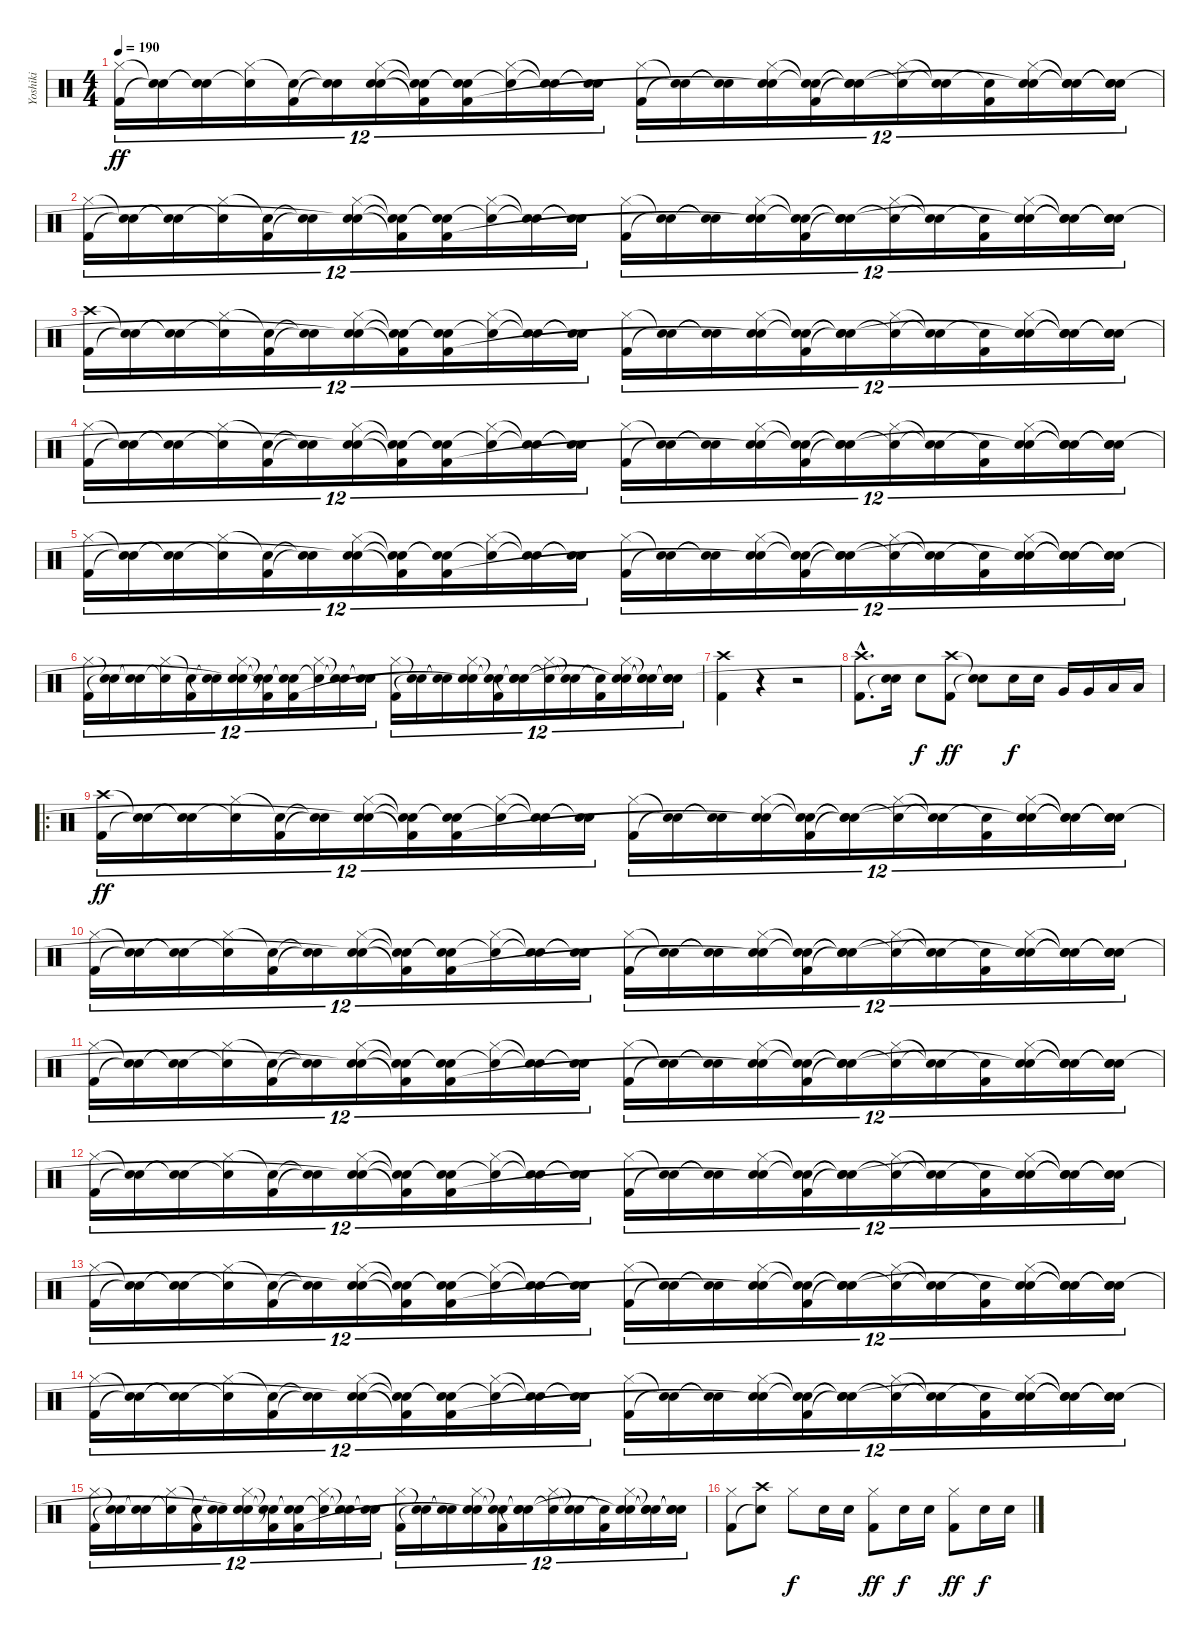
\track ("Yoshiki" "Yoshiki") {instrument percussion}
\staff {score}
\articulation defaults
\ts (4 4)
\tempo 190
\clef neutral
\ks c
("Hi-Hat (closed)" "Kick (hit) 2").16{tu (12 8) dy ff} ("Snare (hit)"{t} "Snare (hit)"{t}).16{tu (12 8)} ("Snare (hit)"{t} "Snare (hit)"{t}).16{tu (12 8)} ("Hi-Hat (closed)" "Snare (hit)"{t}).16{tu (12 8)} ("Snare (hit)"{t} "Kick (hit) 2").16{tu (12 8)} ("Snare (hit)"{t} "Snare (hit)"{t}).16{tu (12 8)} ("Hi-Hat (closed)" "Snare (hit) 2" "Snare (hit)"{t}).16{tu (12 8)} ("Snare (hit)"{t} "Snare (hit)"{t} "Kick (hit) 2"{t}).16{tu (12 8)} ("Snare (hit)"{t} "Snare (hit)"{t} "Kick (hit) 2").16{tu (12 8)} ("Hi-Hat (closed)" "Snare (hit)"{t}).16{tu (12 8)} ("Snare (hit)"{t} "Snare (hit)"{t}).16{tu (12 8)} ("Snare (hit)"{t} "Snare (hit)"{t}).16{tu (12 8)} ("Hi-Hat (closed)" "Kick (hit) 2").16{tu (12 8)} ("Snare (hit)"{t} "Snare (hit)"{t}).16{tu (12 8)} ("Snare (hit)"{t} "Snare (hit)"{t}).16{tu (12 8)} ("Hi-Hat (closed)" "Snare (hit) 2" "Snare (hit)"{t}).16{tu (12 8)} ("Snare (hit)"{t} "Snare (hit)"{t} "Kick (hit) 2").16{tu (12 8)} ("Snare (hit)"{t} "Snare (hit)"{t} "Snare (hit)"{t}).16{tu (12 8)} ("Hi-Hat (closed)" "Snare (hit)"{t}).16{tu (12 8)} ("Snare (hit)"{t} "Snare (hit)"{t}).16{tu (12 8)} ("Snare (hit)"{t} "Kick (hit) 2").16{tu (12 8)} ("Hi-Hat (closed)" "Snare (hit) 2" "Snare (hit)"{t}).16{tu (12 8)} ("Snare (hit)"{t} "Snare (hit)"{t} "Snare (hit)"{t}).16{tu (12 8)} ("Snare (hit)"{t} "Snare (hit)"{t} "Snare (hit)"{t}).16{tu (12 8)} |
("Hi-Hat (closed)" "Kick (hit) 2").16{tu (12 8)} ("Snare (hit)"{t} "Snare (hit)"{t}).16{tu (12 8)} ("Snare (hit)"{t} "Snare (hit)"{t}).16{tu (12 8)} ("Hi-Hat (closed)" "Snare (hit)"{t}).16{tu (12 8)} ("Snare (hit)"{t} "Kick (hit) 2").16{tu (12 8)} ("Snare (hit)"{t} "Snare (hit)"{t}).16{tu (12 8)} ("Hi-Hat (closed)" "Snare (hit) 2" "Snare (hit)"{t}).16{tu (12 8)} ("Snare (hit)"{t} "Snare (hit)"{t} "Kick (hit) 2"{t}).16{tu (12 8)} ("Snare (hit)"{t} "Snare (hit)"{t} "Kick (hit) 2").16{tu (12 8)} ("Hi-Hat (closed)" "Snare (hit)"{t}).16{tu (12 8)} ("Snare (hit)"{t} "Snare (hit)"{t}).16{tu (12 8)} ("Snare (hit)"{t} "Snare (hit)"{t}).16{tu (12 8)} ("Hi-Hat (closed)" "Kick (hit) 2").16{tu (12 8)} ("Snare (hit)"{t} "Snare (hit)"{t}).16{tu (12 8)} ("Snare (hit)"{t} "Snare (hit)"{t}).16{tu (12 8)} ("Hi-Hat (closed)" "Snare (hit) 2" "Snare (hit)"{t}).16{tu (12 8)} ("Snare (hit)"{t} "Snare (hit)"{t} "Kick (hit) 2").16{tu (12 8)} ("Snare (hit)"{t} "Snare (hit)"{t} "Snare (hit)"{t}).16{tu (12 8)} ("Hi-Hat (closed)" "Snare (hit)"{t}).16{tu (12 8)} ("Snare (hit)"{t} "Snare (hit)"{t}).16{tu (12 8)} ("Snare (hit)"{t} "Kick (hit) 2").16{tu (12 8)} ("Hi-Hat (closed)" "Snare (hit) 2" "Snare (hit)"{t}).16{tu (12 8)} ("Snare (hit)"{t} "Snare (hit)"{t} "Snare (hit)"{t}).16{tu (12 8)} ("Snare (hit)"{t} "Snare (hit)"{t} "Snare (hit)"{t}).16{tu (12 8)} |
("Crash high (hit)" "Kick (hit) 2").16{tu (12 8)} ("Snare (hit)"{t} "Snare (hit)"{t}).16{tu (12 8)} ("Snare (hit)"{t} "Snare (hit)"{t}).16{tu (12 8)} ("Hi-Hat (closed)" "Snare (hit)"{t}).16{tu (12 8)} ("Snare (hit)"{t} "Kick (hit) 2").16{tu (12 8)} ("Snare (hit)"{t} "Snare (hit)"{t}).16{tu (12 8)} ("Hi-Hat (closed)" "Snare (hit) 2" "Snare (hit)"{t}).16{tu (12 8)} ("Snare (hit)"{t} "Snare (hit)"{t} "Kick (hit) 2"{t}).16{tu (12 8)} ("Snare (hit)"{t} "Snare (hit)"{t} "Kick (hit) 2").16{tu (12 8)} ("Hi-Hat (closed)" "Snare (hit)"{t}).16{tu (12 8)} ("Snare (hit)"{t} "Snare (hit)"{t}).16{tu (12 8)} ("Snare (hit)"{t} "Snare (hit)"{t}).16{tu (12 8)} ("Hi-Hat (closed)" "Kick (hit) 2").16{tu (12 8)} ("Snare (hit)"{t} "Snare (hit)"{t}).16{tu (12 8)} ("Snare (hit)"{t} "Snare (hit)"{t}).16{tu (12 8)} ("Hi-Hat (closed)" "Snare (hit) 2" "Snare (hit)"{t}).16{tu (12 8)} ("Snare (hit)"{t} "Snare (hit)"{t} "Kick (hit) 2").16{tu (12 8)} ("Snare (hit)"{t} "Snare (hit)"{t} "Snare (hit)"{t}).16{tu (12 8)} ("Hi-Hat (closed)" "Snare (hit)"{t}).16{tu (12 8)} ("Snare (hit)"{t} "Snare (hit)"{t}).16{tu (12 8)} ("Snare (hit)"{t} "Kick (hit) 2").16{tu (12 8)} ("Hi-Hat (closed)" "Snare (hit) 2" "Snare (hit)"{t}).16{tu (12 8)} ("Snare (hit)"{t} "Snare (hit)"{t} "Snare (hit)"{t}).16{tu (12 8)} ("Snare (hit)"{t} "Snare (hit)"{t} "Snare (hit)"{t}).16{tu (12 8)} |
("Hi-Hat (closed)" "Kick (hit) 2").16{tu (12 8)} ("Snare (hit)"{t} "Snare (hit)"{t}).16{tu (12 8)} ("Snare (hit)"{t} "Snare (hit)"{t}).16{tu (12 8)} ("Hi-Hat (closed)" "Snare (hit)"{t}).16{tu (12 8)} ("Snare (hit)"{t} "Kick (hit) 2").16{tu (12 8)} ("Snare (hit)"{t} "Snare (hit)"{t}).16{tu (12 8)} ("Hi-Hat (closed)" "Snare (hit) 2" "Snare (hit)"{t}).16{tu (12 8)} ("Snare (hit)"{t} "Snare (hit)"{t} "Kick (hit) 2"{t}).16{tu (12 8)} ("Snare (hit)"{t} "Snare (hit)"{t} "Kick (hit) 2").16{tu (12 8)} ("Hi-Hat (closed)" "Snare (hit)"{t}).16{tu (12 8)} ("Snare (hit)"{t} "Snare (hit)"{t}).16{tu (12 8)} ("Snare (hit)"{t} "Snare (hit)"{t}).16{tu (12 8)} ("Hi-Hat (closed)" "Kick (hit) 2").16{tu (12 8)} ("Snare (hit)"{t} "Snare (hit)"{t}).16{tu (12 8)} ("Snare (hit)"{t} "Snare (hit)"{t}).16{tu (12 8)} ("Hi-Hat (closed)" "Snare (hit) 2" "Snare (hit)"{t}).16{tu (12 8)} ("Snare (hit)"{t} "Snare (hit)"{t} "Kick (hit) 2").16{tu (12 8)} ("Snare (hit)"{t} "Snare (hit)"{t} "Snare (hit)"{t}).16{tu (12 8)} ("Hi-Hat (closed)" "Snare (hit)"{t}).16{tu (12 8)} ("Snare (hit)"{t} "Snare (hit)"{t}).16{tu (12 8)} ("Snare (hit)"{t} "Kick (hit) 2").16{tu (12 8)} ("Hi-Hat (closed)" "Snare (hit) 2" "Snare (hit)"{t}).16{tu (12 8)} ("Snare (hit)"{t} "Snare (hit)"{t} "Snare (hit)"{t}).16{tu (12 8)} ("Snare (hit)"{t} "Snare (hit)"{t} "Snare (hit)"{t}).16{tu (12 8)} |
("Hi-Hat (closed)" "Kick (hit) 2").16{tu (12 8)} ("Snare (hit)"{t} "Snare (hit)"{t}).16{tu (12 8)} ("Snare (hit)"{t} "Snare (hit)"{t}).16{tu (12 8)} ("Hi-Hat (closed)" "Snare (hit)"{t}).16{tu (12 8)} ("Snare (hit)"{t} "Kick (hit) 2").16{tu (12 8)} ("Snare (hit)"{t} "Snare (hit)"{t}).16{tu (12 8)} ("Hi-Hat (closed)" "Snare (hit) 2" "Snare (hit)"{t}).16{tu (12 8)} ("Snare (hit)"{t} "Snare (hit)"{t} "Kick (hit) 2"{t}).16{tu (12 8)} ("Snare (hit)"{t} "Snare (hit)"{t} "Kick (hit) 2").16{tu (12 8)} ("Hi-Hat (closed)" "Snare (hit)"{t}).16{tu (12 8)} ("Snare (hit)"{t} "Snare (hit)"{t}).16{tu (12 8)} ("Snare (hit)"{t} "Snare (hit)"{t}).16{tu (12 8)} ("Hi-Hat (closed)" "Kick (hit) 2").16{tu (12 8)} ("Snare (hit)"{t} "Snare (hit)"{t}).16{tu (12 8)} ("Snare (hit)"{t} "Snare (hit)"{t}).16{tu (12 8)} ("Hi-Hat (closed)" "Snare (hit) 2" "Snare (hit)"{t}).16{tu (12 8)} ("Snare (hit)"{t} "Snare (hit)"{t} "Kick (hit) 2").16{tu (12 8)} ("Snare (hit)"{t} "Snare (hit)"{t} "Snare (hit)"{t}).16{tu (12 8)} ("Hi-Hat (closed)" "Snare (hit)"{t}).16{tu (12 8)} ("Snare (hit)"{t} "Snare (hit)"{t}).16{tu (12 8)} ("Snare (hit)"{t} "Kick (hit) 2").16{tu (12 8)} ("Hi-Hat (closed)" "Snare (hit) 2" "Snare (hit)"{t}).16{tu (12 8)} ("Snare (hit)"{t} "Snare (hit)"{t} "Snare (hit)"{t}).16{tu (12 8)} ("Snare (hit)"{t} "Snare (hit)"{t} "Snare (hit)"{t}).16{tu (12 8)} |
("Hi-Hat (closed)" "Kick (hit) 2").16{tu (12 8)} ("Snare (hit)"{t} "Snare (hit)"{t}).16{tu (12 8)} ("Snare (hit)"{t} "Snare (hit)"{t}).16{tu (12 8)} ("Hi-Hat (closed)" "Snare (hit)"{t}).16{tu (12 8)} ("Snare (hit)"{t} "Kick (hit) 2").16{tu (12 8)} ("Snare (hit)"{t} "Snare (hit)"{t}).16{tu (12 8)} ("Hi-Hat (closed)" "Snare (hit) 2" "Snare (hit)"{t}).16{tu (12 8)} ("Snare (hit)"{t} "Snare (hit)"{t} "Kick (hit) 2"{t}).16{tu (12 8)} ("Snare (hit)"{t} "Snare (hit)"{t} "Kick (hit) 2").16{tu (12 8)} ("Hi-Hat (closed)" "Snare (hit)"{t}).16{tu (12 8)} ("Snare (hit)"{t} "Snare (hit)"{t}).16{tu (12 8)} ("Snare (hit)"{t} "Snare (hit)"{t}).16{tu (12 8)} ("Hi-Hat (closed)" "Kick (hit) 2").16{tu (12 8)} ("Snare (hit)"{t} "Snare (hit)"{t}).16{tu (12 8)} ("Snare (hit)"{t} "Snare (hit)"{t}).16{tu (12 8)} ("Hi-Hat (closed)" "Snare (hit) 2" "Snare (hit)"{t}).16{tu (12 8)} ("Snare (hit)"{t} "Snare (hit)"{t} "Kick (hit) 2").16{tu (12 8)} ("Snare (hit)"{t} "Snare (hit)"{t} "Snare (hit)"{t}).16{tu (12 8)} ("Hi-Hat (closed)" "Snare (hit)"{t}).16{tu (12 8)} ("Snare (hit)"{t} "Snare (hit)"{t}).16{tu (12 8)} ("Snare (hit)"{t} "Kick (hit) 2").16{tu (12 8)} ("Hi-Hat (closed)" "Snare (hit) 2" "Snare (hit)"{t}).16{tu (12 8)} ("Snare (hit)"{t} "Snare (hit)"{t} "Snare (hit)"{t}).16{tu (12 8)} ("Snare (hit)"{t} "Snare (hit)"{t} "Snare (hit)"{t}).16{tu (12 8)} |
("Crash high (hit)" "Kick (hit) 2").4 r.4 r.2 |
("Crash high (hit)"{hac} "Kick (hit) 2"{hac}).8{d} ("Snare (hit) 2" "Snare (hit)"{t}).16 "Snare (hit) 2".8{dy f} ("Crash high (hit)" "Kick (hit) 2").8{dy ff} ("Snare (hit)"{t} "Snare (hit)"{t}).8 "Snare (hit) 2".16{dy f} "Snare (hit) 2".16 "Very Low Tom (hit)".16 "Very Low Tom (hit)".16 "Low Floor Tom (hit)".16 "Low Floor Tom (hit)".16 |
\ro
("Crash high (hit)" "Kick (hit) 2").16{tu (12 8) dy ff} ("Snare (hit)"{t} "Snare (hit)"{t}).16{tu (12 8)} ("Snare (hit)"{t} "Snare (hit)"{t}).16{tu (12 8)} ("Hi-Hat (closed)" "Snare (hit)"{t}).16{tu (12 8)} ("Snare (hit)"{t} "Kick (hit) 2").16{tu (12 8)} ("Snare (hit)"{t} "Snare (hit)"{t}).16{tu (12 8)} ("Hi-Hat (closed)" "Snare (hit) 2" "Snare (hit)"{t}).16{tu (12 8)} ("Snare (hit)"{t} "Snare (hit)"{t} "Kick (hit) 2"{t}).16{tu (12 8)} ("Snare (hit)"{t} "Snare (hit)"{t} "Kick (hit) 2").16{tu (12 8)} ("Hi-Hat (closed)" "Snare (hit)"{t}).16{tu (12 8)} ("Snare (hit)"{t} "Snare (hit)"{t}).16{tu (12 8)} ("Snare (hit)"{t} "Snare (hit)"{t}).16{tu (12 8)} ("Hi-Hat (closed)" "Kick (hit) 2").16{tu (12 8)} ("Snare (hit)"{t} "Snare (hit)"{t}).16{tu (12 8)} ("Snare (hit)"{t} "Snare (hit)"{t}).16{tu (12 8)} ("Hi-Hat (closed)" "Snare (hit) 2" "Snare (hit)"{t}).16{tu (12 8)} ("Snare (hit)"{t} "Snare (hit)"{t} "Kick (hit) 2").16{tu (12 8)} ("Snare (hit)"{t} "Snare (hit)"{t} "Snare (hit)"{t}).16{tu (12 8)} ("Hi-Hat (closed)" "Snare (hit)"{t}).16{tu (12 8)} ("Snare (hit)"{t} "Snare (hit)"{t}).16{tu (12 8)} ("Snare (hit)"{t} "Kick (hit) 2").16{tu (12 8)} ("Hi-Hat (closed)" "Snare (hit) 2" "Snare (hit)"{t}).16{tu (12 8)} ("Snare (hit)"{t} "Snare (hit)"{t} "Snare (hit)"{t}).16{tu (12 8)} ("Snare (hit)"{t} "Snare (hit)"{t} "Snare (hit)"{t}).16{tu (12 8)} |
("Hi-Hat (closed)" "Kick (hit) 2").16{tu (12 8)} ("Snare (hit)"{t} "Snare (hit)"{t}).16{tu (12 8)} ("Snare (hit)"{t} "Snare (hit)"{t}).16{tu (12 8)} ("Hi-Hat (closed)" "Snare (hit)"{t}).16{tu (12 8)} ("Snare (hit)"{t} "Kick (hit) 2").16{tu (12 8)} ("Snare (hit)"{t} "Snare (hit)"{t}).16{tu (12 8)} ("Hi-Hat (closed)" "Snare (hit) 2" "Snare (hit)"{t}).16{tu (12 8)} ("Snare (hit)"{t} "Snare (hit)"{t} "Kick (hit) 2"{t}).16{tu (12 8)} ("Snare (hit)"{t} "Snare (hit)"{t} "Kick (hit) 2").16{tu (12 8)} ("Hi-Hat (closed)" "Snare (hit)"{t}).16{tu (12 8)} ("Snare (hit)"{t} "Snare (hit)"{t}).16{tu (12 8)} ("Snare (hit)"{t} "Snare (hit)"{t}).16{tu (12 8)} ("Hi-Hat (closed)" "Kick (hit) 2").16{tu (12 8)} ("Snare (hit)"{t} "Snare (hit)"{t}).16{tu (12 8)} ("Snare (hit)"{t} "Snare (hit)"{t}).16{tu (12 8)} ("Hi-Hat (closed)" "Snare (hit) 2" "Snare (hit)"{t}).16{tu (12 8)} ("Snare (hit)"{t} "Snare (hit)"{t} "Kick (hit) 2").16{tu (12 8)} ("Snare (hit)"{t} "Snare (hit)"{t} "Snare (hit)"{t}).16{tu (12 8)} ("Hi-Hat (closed)" "Snare (hit)"{t}).16{tu (12 8)} ("Snare (hit)"{t} "Snare (hit)"{t}).16{tu (12 8)} ("Snare (hit)"{t} "Kick (hit) 2").16{tu (12 8)} ("Hi-Hat (closed)" "Snare (hit) 2" "Snare (hit)"{t}).16{tu (12 8)} ("Snare (hit)"{t} "Snare (hit)"{t} "Snare (hit)"{t}).16{tu (12 8)} ("Snare (hit)"{t} "Snare (hit)"{t} "Snare (hit)"{t}).16{tu (12 8)} |
("Hi-Hat (closed)" "Kick (hit) 2").16{tu (12 8)} ("Snare (hit)"{t} "Snare (hit)"{t}).16{tu (12 8)} ("Snare (hit)"{t} "Snare (hit)"{t}).16{tu (12 8)} ("Hi-Hat (closed)" "Snare (hit)"{t}).16{tu (12 8)} ("Snare (hit)"{t} "Kick (hit) 2").16{tu (12 8)} ("Snare (hit)"{t} "Snare (hit)"{t}).16{tu (12 8)} ("Hi-Hat (closed)" "Snare (hit) 2" "Snare (hit)"{t}).16{tu (12 8)} ("Snare (hit)"{t} "Snare (hit)"{t} "Kick (hit) 2"{t}).16{tu (12 8)} ("Snare (hit)"{t} "Snare (hit)"{t} "Kick (hit) 2").16{tu (12 8)} ("Hi-Hat (closed)" "Snare (hit)"{t}).16{tu (12 8)} ("Snare (hit)"{t} "Snare (hit)"{t}).16{tu (12 8)} ("Snare (hit)"{t} "Snare (hit)"{t}).16{tu (12 8)} ("Hi-Hat (closed)" "Kick (hit) 2").16{tu (12 8)} ("Snare (hit)"{t} "Snare (hit)"{t}).16{tu (12 8)} ("Snare (hit)"{t} "Snare (hit)"{t}).16{tu (12 8)} ("Hi-Hat (closed)" "Snare (hit) 2" "Snare (hit)"{t}).16{tu (12 8)} ("Snare (hit)"{t} "Snare (hit)"{t} "Kick (hit) 2").16{tu (12 8)} ("Snare (hit)"{t} "Snare (hit)"{t} "Snare (hit)"{t}).16{tu (12 8)} ("Hi-Hat (closed)" "Snare (hit)"{t}).16{tu (12 8)} ("Snare (hit)"{t} "Snare (hit)"{t}).16{tu (12 8)} ("Snare (hit)"{t} "Kick (hit) 2").16{tu (12 8)} ("Hi-Hat (closed)" "Snare (hit) 2" "Snare (hit)"{t}).16{tu (12 8)} ("Snare (hit)"{t} "Snare (hit)"{t} "Snare (hit)"{t}).16{tu (12 8)} ("Snare (hit)"{t} "Snare (hit)"{t} "Snare (hit)"{t}).16{tu (12 8)} |
("Hi-Hat (closed)" "Kick (hit) 2").16{tu (12 8)} ("Snare (hit)"{t} "Snare (hit)"{t}).16{tu (12 8)} ("Snare (hit)"{t} "Snare (hit)"{t}).16{tu (12 8)} ("Hi-Hat (closed)" "Snare (hit)"{t}).16{tu (12 8)} ("Snare (hit)"{t} "Kick (hit) 2").16{tu (12 8)} ("Snare (hit)"{t} "Snare (hit)"{t}).16{tu (12 8)} ("Hi-Hat (closed)" "Snare (hit) 2" "Snare (hit)"{t}).16{tu (12 8)} ("Snare (hit)"{t} "Snare (hit)"{t} "Kick (hit) 2"{t}).16{tu (12 8)} ("Snare (hit)"{t} "Snare (hit)"{t} "Kick (hit) 2").16{tu (12 8)} ("Hi-Hat (closed)" "Snare (hit)"{t}).16{tu (12 8)} ("Snare (hit)"{t} "Snare (hit)"{t}).16{tu (12 8)} ("Snare (hit)"{t} "Snare (hit)"{t}).16{tu (12 8)} ("Hi-Hat (closed)" "Kick (hit) 2").16{tu (12 8)} ("Snare (hit)"{t} "Snare (hit)"{t}).16{tu (12 8)} ("Snare (hit)"{t} "Snare (hit)"{t}).16{tu (12 8)} ("Hi-Hat (closed)" "Snare (hit) 2" "Snare (hit)"{t}).16{tu (12 8)} ("Snare (hit)"{t} "Snare (hit)"{t} "Kick (hit) 2").16{tu (12 8)} ("Snare (hit)"{t} "Snare (hit)"{t} "Snare (hit)"{t}).16{tu (12 8)} ("Hi-Hat (closed)" "Snare (hit)"{t}).16{tu (12 8)} ("Snare (hit)"{t} "Snare (hit)"{t}).16{tu (12 8)} ("Snare (hit)"{t} "Kick (hit) 2").16{tu (12 8)} ("Hi-Hat (closed)" "Snare (hit) 2" "Snare (hit)"{t}).16{tu (12 8)} ("Snare (hit)"{t} "Snare (hit)"{t} "Snare (hit)"{t}).16{tu (12 8)} ("Snare (hit)"{t} "Snare (hit)"{t} "Snare (hit)"{t}).16{tu (12 8)} |
("Hi-Hat (closed)" "Kick (hit) 2").16{tu (12 8)} ("Snare (hit)"{t} "Snare (hit)"{t}).16{tu (12 8)} ("Snare (hit)"{t} "Snare (hit)"{t}).16{tu (12 8)} ("Hi-Hat (closed)" "Snare (hit)"{t}).16{tu (12 8)} ("Snare (hit)"{t} "Kick (hit) 2").16{tu (12 8)} ("Snare (hit)"{t} "Snare (hit)"{t}).16{tu (12 8)} ("Hi-Hat (closed)" "Snare (hit) 2" "Snare (hit)"{t}).16{tu (12 8)} ("Snare (hit)"{t} "Snare (hit)"{t} "Kick (hit) 2"{t}).16{tu (12 8)} ("Snare (hit)"{t} "Snare (hit)"{t} "Kick (hit) 2").16{tu (12 8)} ("Hi-Hat (closed)" "Snare (hit)"{t}).16{tu (12 8)} ("Snare (hit)"{t} "Snare (hit)"{t}).16{tu (12 8)} ("Snare (hit)"{t} "Snare (hit)"{t}).16{tu (12 8)} ("Hi-Hat (closed)" "Kick (hit) 2").16{tu (12 8)} ("Snare (hit)"{t} "Snare (hit)"{t}).16{tu (12 8)} ("Snare (hit)"{t} "Snare (hit)"{t}).16{tu (12 8)} ("Hi-Hat (closed)" "Snare (hit) 2" "Snare (hit)"{t}).16{tu (12 8)} ("Snare (hit)"{t} "Snare (hit)"{t} "Kick (hit) 2").16{tu (12 8)} ("Snare (hit)"{t} "Snare (hit)"{t} "Snare (hit)"{t}).16{tu (12 8)} ("Hi-Hat (closed)" "Snare (hit)"{t}).16{tu (12 8)} ("Snare (hit)"{t} "Snare (hit)"{t}).16{tu (12 8)} ("Snare (hit)"{t} "Kick (hit) 2").16{tu (12 8)} ("Hi-Hat (closed)" "Snare (hit) 2" "Snare (hit)"{t}).16{tu (12 8)} ("Snare (hit)"{t} "Snare (hit)"{t} "Snare (hit)"{t}).16{tu (12 8)} ("Snare (hit)"{t} "Snare (hit)"{t} "Snare (hit)"{t}).16{tu (12 8)} |
("Hi-Hat (closed)" "Kick (hit) 2").16{tu (12 8)} ("Snare (hit)"{t} "Snare (hit)"{t}).16{tu (12 8)} ("Snare (hit)"{t} "Snare (hit)"{t}).16{tu (12 8)} ("Hi-Hat (closed)" "Snare (hit)"{t}).16{tu (12 8)} ("Snare (hit)"{t} "Kick (hit) 2").16{tu (12 8)} ("Snare (hit)"{t} "Snare (hit)"{t}).16{tu (12 8)} ("Hi-Hat (closed)" "Snare (hit) 2" "Snare (hit)"{t}).16{tu (12 8)} ("Snare (hit)"{t} "Snare (hit)"{t} "Kick (hit) 2"{t}).16{tu (12 8)} ("Snare (hit)"{t} "Snare (hit)"{t} "Kick (hit) 2").16{tu (12 8)} ("Hi-Hat (closed)" "Snare (hit)"{t}).16{tu (12 8)} ("Snare (hit)"{t} "Snare (hit)"{t}).16{tu (12 8)} ("Snare (hit)"{t} "Snare (hit)"{t}).16{tu (12 8)} ("Hi-Hat (closed)" "Kick (hit) 2").16{tu (12 8)} ("Snare (hit)"{t} "Snare (hit)"{t}).16{tu (12 8)} ("Snare (hit)"{t} "Snare (hit)"{t}).16{tu (12 8)} ("Hi-Hat (closed)" "Snare (hit) 2" "Snare (hit)"{t}).16{tu (12 8)} ("Snare (hit)"{t} "Snare (hit)"{t} "Kick (hit) 2").16{tu (12 8)} ("Snare (hit)"{t} "Snare (hit)"{t} "Snare (hit)"{t}).16{tu (12 8)} ("Hi-Hat (closed)" "Snare (hit)"{t}).16{tu (12 8)} ("Snare (hit)"{t} "Snare (hit)"{t}).16{tu (12 8)} ("Snare (hit)"{t} "Kick (hit) 2").16{tu (12 8)} ("Hi-Hat (closed)" "Snare (hit) 2" "Snare (hit)"{t}).16{tu (12 8)} ("Snare (hit)"{t} "Snare (hit)"{t} "Snare (hit)"{t}).16{tu (12 8)} ("Snare (hit)"{t} "Snare (hit)"{t} "Snare (hit)"{t}).16{tu (12 8)} |
("Hi-Hat (closed)" "Kick (hit) 2").16{tu (12 8)} ("Snare (hit)"{t} "Snare (hit)"{t}).16{tu (12 8)} ("Snare (hit)"{t} "Snare (hit)"{t}).16{tu (12 8)} ("Hi-Hat (closed)" "Snare (hit)"{t}).16{tu (12 8)} ("Snare (hit)"{t} "Kick (hit) 2").16{tu (12 8)} ("Snare (hit)"{t} "Snare (hit)"{t}).16{tu (12 8)} ("Hi-Hat (closed)" "Snare (hit) 2" "Snare (hit)"{t}).16{tu (12 8)} ("Snare (hit)"{t} "Snare (hit)"{t} "Kick (hit) 2"{t}).16{tu (12 8)} ("Snare (hit)"{t} "Snare (hit)"{t} "Kick (hit) 2").16{tu (12 8)} ("Hi-Hat (closed)" "Snare (hit)"{t}).16{tu (12 8)} ("Snare (hit)"{t} "Snare (hit)"{t}).16{tu (12 8)} ("Snare (hit)"{t} "Snare (hit)"{t}).16{tu (12 8)} ("Hi-Hat (closed)" "Kick (hit) 2").16{tu (12 8)} ("Snare (hit)"{t} "Snare (hit)"{t}).16{tu (12 8)} ("Snare (hit)"{t} "Snare (hit)"{t}).16{tu (12 8)} ("Hi-Hat (closed)" "Snare (hit) 2" "Snare (hit)"{t}).16{tu (12 8)} ("Snare (hit)"{t} "Snare (hit)"{t} "Kick (hit) 2").16{tu (12 8)} ("Snare (hit)"{t} "Snare (hit)"{t} "Snare (hit)"{t}).16{tu (12 8)} ("Hi-Hat (closed)" "Snare (hit)"{t}).16{tu (12 8)} ("Snare (hit)"{t} "Snare (hit)"{t}).16{tu (12 8)} ("Snare (hit)"{t} "Kick (hit) 2").16{tu (12 8)} ("Hi-Hat (closed)" "Snare (hit) 2" "Snare (hit)"{t}).16{tu (12 8)} ("Snare (hit)"{t} "Snare (hit)"{t} "Snare (hit)"{t}).16{tu (12 8)} ("Snare (hit)"{t} "Snare (hit)"{t} "Snare (hit)"{t}).16{tu (12 8)} |
("Hi-Hat (closed)" "Kick (hit) 2").8 ("Crash high (hit)" "Snare (hit)"{t}).8 "Hi-Hat (closed)".8{dy f} "Snare (hit) 2".16 "Snare (hit) 2".16 ("Hi-Hat (closed)" "Kick (hit) 2").8{dy ff} "Snare (hit) 2".16{dy f} "Snare (hit) 2".16 ("Hi-Hat (closed)" "Kick (hit) 2").8{dy ff} "Snare (hit) 2".16{dy f} "Snare (hit) 2".16
